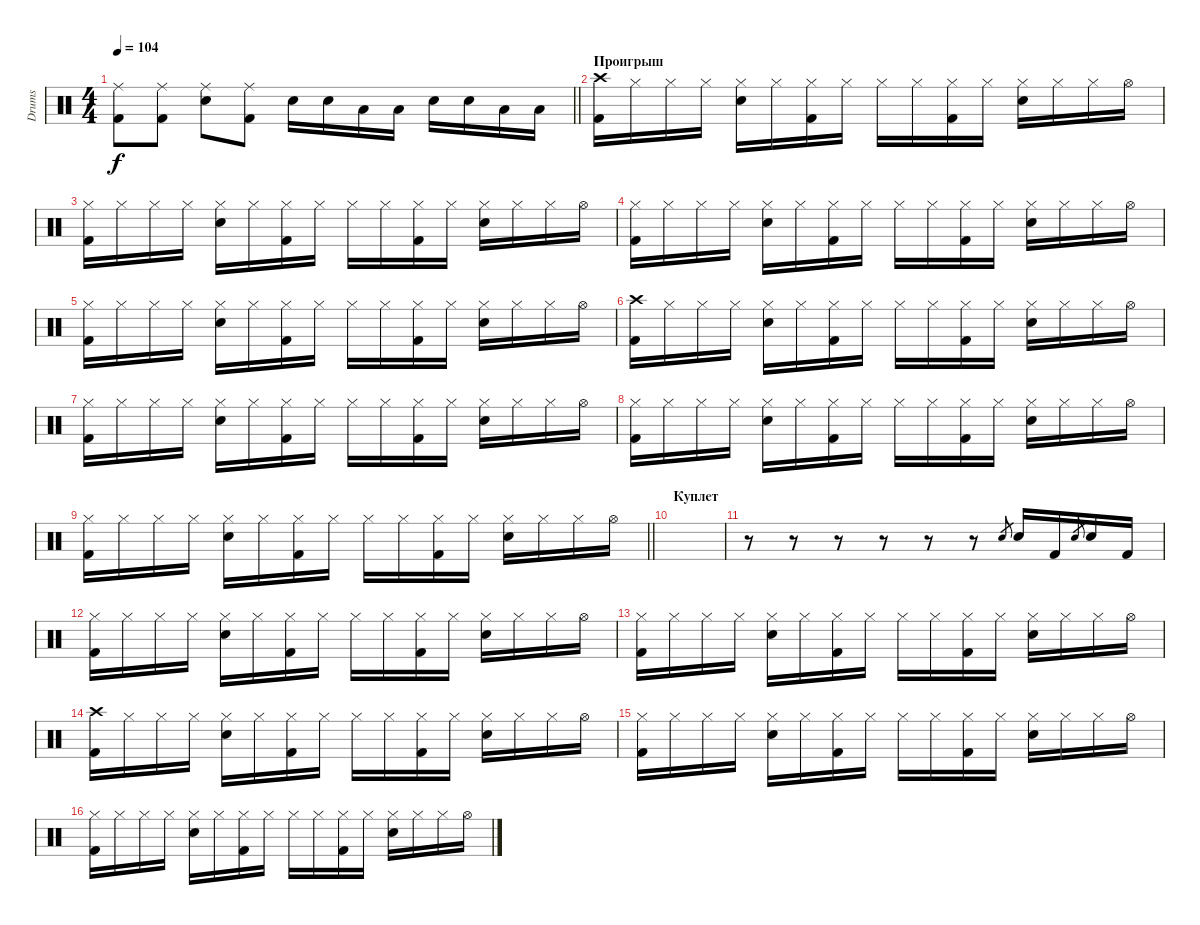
\track ("Drums" "Drums") {instrument percussion}
\staff {score}
\articulation defaults
\ts (4 4)
\tempo 104
\clef neutral
\barLineRight lightlight
\ks c
("Ride (middle)" "Kick (hit) 2").8{dy f} ("Ride (middle)" "Kick (hit) 2").8 ("Ride (middle)" "Snare (hit) 2").8 ("Ride (middle)" "Kick (hit) 2").8 "Snare (hit) 2".16 "Snare (hit) 2".16 "Low Tom (hit)".16 "Low Tom (hit)".16 "Snare (hit) 2".16 "Snare (hit) 2".16 "Low Tom (hit)".16 "Low Tom (hit)".16 |
\section ("" "Проигрыш")
("Crash high (hit)" "Kick (hit) 2").16 "Hi-Hat (closed)".16 "Hi-Hat (closed)".16 "Hi-Hat (closed)".16 ("Hi-Hat (closed)" "Snare (hit) 2").16 "Hi-Hat (closed)".16 ("Hi-Hat (closed)" "Kick (hit) 2").16 "Hi-Hat (closed)".16 "Hi-Hat (closed)".16 "Hi-Hat (closed)".16 ("Hi-Hat (closed)" "Kick (hit) 2").16 "Hi-Hat (closed)".16 ("Hi-Hat (closed)" "Snare (hit) 2").16 "Hi-Hat (closed)".16 "Hi-Hat (closed)".16 "Hi-Hat (open)".16 |
("Hi-Hat (closed)" "Kick (hit) 2").16 "Hi-Hat (closed)".16 "Hi-Hat (closed)".16 "Hi-Hat (closed)".16 ("Hi-Hat (closed)" "Snare (hit) 2").16 "Hi-Hat (closed)".16 ("Hi-Hat (closed)" "Kick (hit) 2").16 "Hi-Hat (closed)".16 "Hi-Hat (closed)".16 "Hi-Hat (closed)".16 ("Hi-Hat (closed)" "Kick (hit) 2").16 "Hi-Hat (closed)".16 ("Hi-Hat (closed)" "Snare (hit) 2").16 "Hi-Hat (closed)".16 "Hi-Hat (closed)".16 "Hi-Hat (open)".16 |
("Hi-Hat (closed)" "Kick (hit) 2").16 "Hi-Hat (closed)".16 "Hi-Hat (closed)".16 "Hi-Hat (closed)".16 ("Hi-Hat (closed)" "Snare (hit) 2").16 "Hi-Hat (closed)".16 ("Hi-Hat (closed)" "Kick (hit) 2").16 "Hi-Hat (closed)".16 "Hi-Hat (closed)".16 "Hi-Hat (closed)".16 ("Hi-Hat (closed)" "Kick (hit) 2").16 "Hi-Hat (closed)".16 ("Hi-Hat (closed)" "Snare (hit) 2").16 "Hi-Hat (closed)".16 "Hi-Hat (closed)".16 "Hi-Hat (open)".16 |
("Hi-Hat (closed)" "Kick (hit) 2").16 "Hi-Hat (closed)".16 "Hi-Hat (closed)".16 "Hi-Hat (closed)".16 ("Hi-Hat (closed)" "Snare (hit) 2").16 "Hi-Hat (closed)".16 ("Hi-Hat (closed)" "Kick (hit) 2").16 "Hi-Hat (closed)".16 "Hi-Hat (closed)".16 "Hi-Hat (closed)".16 ("Hi-Hat (closed)" "Kick (hit) 2").16 "Hi-Hat (closed)".16 ("Hi-Hat (closed)" "Snare (hit) 2").16 "Hi-Hat (closed)".16 "Hi-Hat (closed)".16 "Hi-Hat (open)".16 |
("Crash high (hit)" "Kick (hit) 2").16 "Hi-Hat (closed)".16 "Hi-Hat (closed)".16 "Hi-Hat (closed)".16 ("Hi-Hat (closed)" "Snare (hit) 2").16 "Hi-Hat (closed)".16 ("Hi-Hat (closed)" "Kick (hit) 2").16 "Hi-Hat (closed)".16 "Hi-Hat (closed)".16 "Hi-Hat (closed)".16 ("Hi-Hat (closed)" "Kick (hit) 2").16 "Hi-Hat (closed)".16 ("Hi-Hat (closed)" "Snare (hit) 2").16 "Hi-Hat (closed)".16 "Hi-Hat (closed)".16 "Hi-Hat (open)".16 |
("Hi-Hat (closed)" "Kick (hit) 2").16 "Hi-Hat (closed)".16 "Hi-Hat (closed)".16 "Hi-Hat (closed)".16 ("Hi-Hat (closed)" "Snare (hit) 2").16 "Hi-Hat (closed)".16 ("Hi-Hat (closed)" "Kick (hit) 2").16 "Hi-Hat (closed)".16 "Hi-Hat (closed)".16 "Hi-Hat (closed)".16 ("Hi-Hat (closed)" "Kick (hit) 2").16 "Hi-Hat (closed)".16 ("Hi-Hat (closed)" "Snare (hit) 2").16 "Hi-Hat (closed)".16 "Hi-Hat (closed)".16 "Hi-Hat (open)".16 |
("Hi-Hat (closed)" "Kick (hit) 2").16 "Hi-Hat (closed)".16 "Hi-Hat (closed)".16 "Hi-Hat (closed)".16 ("Hi-Hat (closed)" "Snare (hit) 2").16 "Hi-Hat (closed)".16 ("Hi-Hat (closed)" "Kick (hit) 2").16 "Hi-Hat (closed)".16 "Hi-Hat (closed)".16 "Hi-Hat (closed)".16 ("Hi-Hat (closed)" "Kick (hit) 2").16 "Hi-Hat (closed)".16 ("Hi-Hat (closed)" "Snare (hit) 2").16 "Hi-Hat (closed)".16 "Hi-Hat (closed)".16 "Hi-Hat (open)".16 |
\barLineRight lightlight
("Hi-Hat (closed)" "Kick (hit) 2").16 "Hi-Hat (closed)".16 "Hi-Hat (closed)".16 "Hi-Hat (closed)".16 ("Hi-Hat (closed)" "Snare (hit) 2").16 "Hi-Hat (closed)".16 ("Hi-Hat (closed)" "Kick (hit) 2").16 "Hi-Hat (closed)".16 "Hi-Hat (closed)".16 "Hi-Hat (closed)".16 ("Hi-Hat (closed)" "Kick (hit) 2").16 "Hi-Hat (closed)".16 ("Hi-Hat (closed)" "Snare (hit) 2").16 "Hi-Hat (closed)".16 "Hi-Hat (closed)".16 "Hi-Hat (open)".16 |
\section ("" "Куплет")
|
r.8 r.8 r.8 r.8 r.8 r.8 "Snare (hit) 2".8{gr} "Snare (hit) 2".16 "Kick (hit) 2".16 "Snare (hit) 2".8{gr} "Snare (hit) 2".16 "Kick (hit) 2".16 |
("Hi-Hat (closed)" "Kick (hit) 2").16 "Hi-Hat (closed)".16 "Hi-Hat (closed)".16 "Hi-Hat (closed)".16 ("Hi-Hat (closed)" "Snare (hit) 2").16 "Hi-Hat (closed)".16 ("Hi-Hat (closed)" "Kick (hit) 2").16 "Hi-Hat (closed)".16 "Hi-Hat (closed)".16 "Hi-Hat (closed)".16 ("Hi-Hat (closed)" "Kick (hit) 2").16 "Hi-Hat (closed)".16 ("Hi-Hat (closed)" "Snare (hit) 2").16 "Hi-Hat (closed)".16 "Hi-Hat (closed)".16 "Hi-Hat (open)".16 |
("Hi-Hat (closed)" "Kick (hit) 2").16 "Hi-Hat (closed)".16 "Hi-Hat (closed)".16 "Hi-Hat (closed)".16 ("Hi-Hat (closed)" "Snare (hit) 2").16 "Hi-Hat (closed)".16 ("Hi-Hat (closed)" "Kick (hit) 2").16 "Hi-Hat (closed)".16 "Hi-Hat (closed)".16 "Hi-Hat (closed)".16 ("Hi-Hat (closed)" "Kick (hit) 2").16 "Hi-Hat (closed)".16 ("Hi-Hat (closed)" "Snare (hit) 2").16 "Hi-Hat (closed)".16 "Hi-Hat (closed)".16 "Hi-Hat (open)".16 |
("Crash high (hit)" "Kick (hit) 2").16 "Hi-Hat (closed)".16 "Hi-Hat (closed)".16 "Hi-Hat (closed)".16 ("Hi-Hat (closed)" "Snare (hit) 2").16 "Hi-Hat (closed)".16 ("Hi-Hat (closed)" "Kick (hit) 2").16 "Hi-Hat (closed)".16 "Hi-Hat (closed)".16 "Hi-Hat (closed)".16 ("Hi-Hat (closed)" "Kick (hit) 2").16 "Hi-Hat (closed)".16 ("Hi-Hat (closed)" "Snare (hit) 2").16 "Hi-Hat (closed)".16 "Hi-Hat (closed)".16 "Hi-Hat (open)".16 |
("Hi-Hat (closed)" "Kick (hit) 2").16 "Hi-Hat (closed)".16 "Hi-Hat (closed)".16 "Hi-Hat (closed)".16 ("Hi-Hat (closed)" "Snare (hit) 2").16 "Hi-Hat (closed)".16 ("Hi-Hat (closed)" "Kick (hit) 2").16 "Hi-Hat (closed)".16 "Hi-Hat (closed)".16 "Hi-Hat (closed)".16 ("Hi-Hat (closed)" "Kick (hit) 2").16 "Hi-Hat (closed)".16 ("Hi-Hat (closed)" "Snare (hit) 2").16 "Hi-Hat (closed)".16 "Hi-Hat (closed)".16 "Hi-Hat (open)".16 |
("Hi-Hat (closed)" "Kick (hit) 2").16 "Hi-Hat (closed)".16 "Hi-Hat (closed)".16 "Hi-Hat (closed)".16 ("Hi-Hat (closed)" "Snare (hit) 2").16 "Hi-Hat (closed)".16 ("Hi-Hat (closed)" "Kick (hit) 2").16 "Hi-Hat (closed)".16 "Hi-Hat (closed)".16 "Hi-Hat (closed)".16 ("Hi-Hat (closed)" "Kick (hit) 2").16 "Hi-Hat (closed)".16 ("Hi-Hat (closed)" "Snare (hit) 2").16 "Hi-Hat (closed)".16 "Hi-Hat (closed)".16 "Hi-Hat (open)".16
